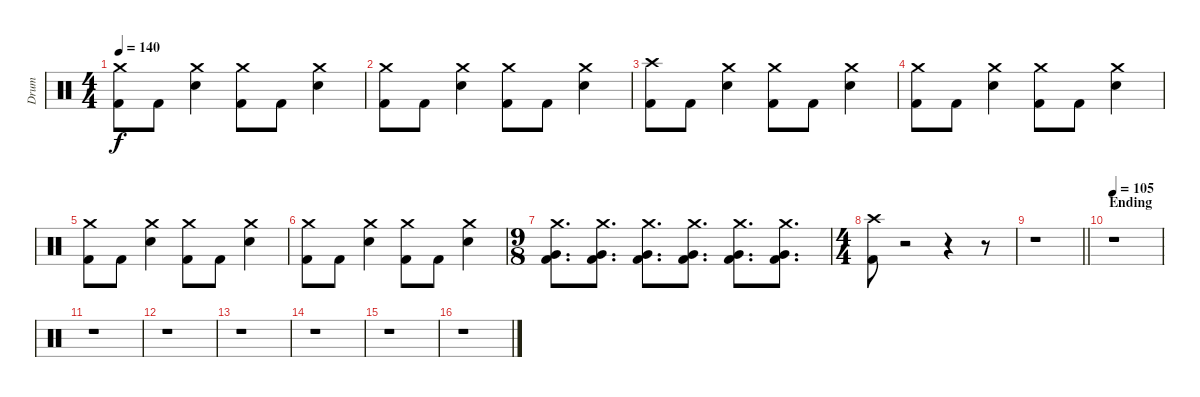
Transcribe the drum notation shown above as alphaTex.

\track ("Drum" "Drum") {instrument percussion}
\staff {score}
\articulation defaults
\ts (4 4)
\tempo 140
\clef neutral
\ks c
("Crash medium (hit)" "Kick (hit) 2").8{dy f} "Kick (hit) 2".8 ("Crash medium (hit)" "Electric Snare (hit)").4 ("Crash medium (hit)" "Kick (hit) 2").8 "Kick (hit) 2".8 ("Crash medium (hit)" "Electric Snare (hit)").4 |
("Crash medium (hit)" "Kick (hit) 2").8 "Kick (hit) 2".8 ("Crash medium (hit)" "Electric Snare (hit)").4 ("Crash medium (hit)" "Kick (hit) 2").8 "Kick (hit) 2".8 ("Crash medium (hit)" "Electric Snare (hit)").4 |
("Crash high (hit)" "Kick (hit) 2").8 "Kick (hit) 2".8 ("Crash medium (hit)" "Electric Snare (hit)").4 ("Crash medium (hit)" "Kick (hit) 2").8 "Kick (hit) 2".8 ("Crash medium (hit)" "Electric Snare (hit)").4 |
("Crash medium (hit)" "Kick (hit) 2").8 "Kick (hit) 2".8 ("Crash medium (hit)" "Electric Snare (hit)").4 ("Crash medium (hit)" "Kick (hit) 2").8 "Kick (hit) 2".8 ("Crash medium (hit)" "Electric Snare (hit)").4 |
("Crash medium (hit)" "Kick (hit) 2").8 "Kick (hit) 2".8 ("Crash medium (hit)" "Electric Snare (hit)").4 ("Crash medium (hit)" "Kick (hit) 2").8 "Kick (hit) 2".8 ("Crash medium (hit)" "Electric Snare (hit)").4 |
("Crash medium (hit)" "Kick (hit) 2").8 "Kick (hit) 2".8 ("Crash medium (hit)" "Electric Snare (hit)").4 ("Crash medium (hit)" "Kick (hit) 2").8 "Kick (hit) 2".8 ("Crash medium (hit)" "Electric Snare (hit)").4 |
\ts (9 8)
("Crash medium (hit)" "Very Low Tom (hit)" "Kick (hit) 2").8{d} ("Crash medium (hit)" "Very Low Tom (hit)" "Kick (hit) 2").8{d} ("Crash medium (hit)" "Very Low Tom (hit)" "Kick (hit) 2").8{d} ("Crash medium (hit)" "Very Low Tom (hit)" "Kick (hit) 2").8{d} ("Crash medium (hit)" "Very Low Tom (hit)" "Kick (hit) 2").8{d} ("Crash medium (hit)" "Very Low Tom (hit)" "Kick (hit) 2").8{d} |
\ts (4 4)
("Crash high (hit)" "Kick (hit) 2").8 r.2 r.4 r.8 |
\barLineRight lightlight
r.1 |
\section ("" "Ending")
\tempo 105
r.1 |
r.1 |
r.1 |
r.1 |
r.1 |
r.1 |
r.1
